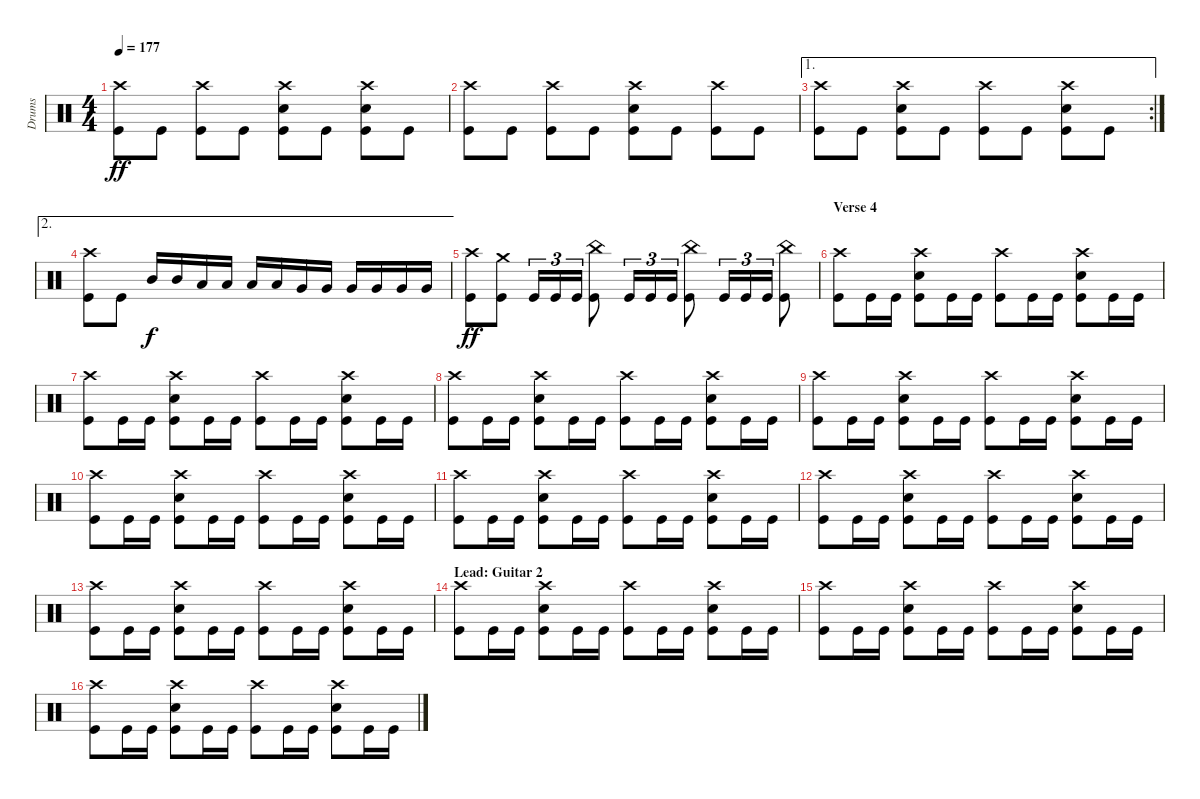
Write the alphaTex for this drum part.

\track ("Drums" "Drums") {instrument percussion}
\staff {score}
\articulation defaults
\ts (4 4)
\tempo 177
\clef neutral
\ks c
("Crash high (hit)" "Kick (hit)").8{dy ff} "Kick (hit)".8 ("Crash high (hit)" "Kick (hit)").8 "Kick (hit)".8 ("Crash high (hit)" "Electric Snare (hit)" "Kick (hit)").8 "Kick (hit)".8 ("Crash high (hit)" "Electric Snare (hit)" "Kick (hit)").8 "Kick (hit)".8 |
("Crash high (hit)" "Kick (hit)").8 "Kick (hit)".8 ("Crash high (hit)" "Kick (hit)").8 "Kick (hit)".8 ("Crash high (hit)" "Electric Snare (hit)" "Kick (hit)").8 "Kick (hit)".8 ("Crash high (hit)" "Kick (hit)").8 "Kick (hit)".8 |
\ae 1
\rc 2
("Crash high (hit)" "Kick (hit)").8 "Kick (hit)".8 ("Crash high (hit)" "Electric Snare (hit)" "Kick (hit)").8 "Kick (hit)".8 ("Crash high (hit)" "Kick (hit)").8 "Kick (hit)".8 ("Crash high (hit)" "Electric Snare (hit)" "Kick (hit)").8 "Kick (hit)".8 |
\ae 2
("Crash high (hit)" "Kick (hit)").8 "Kick (hit)".8 "Mid Tom (hit)".16{dy f} "Mid Tom (hit)".16 "Low Tom (hit)".16 "Low Tom (hit)".16 "Low Tom (hit)".16 "Low Tom (hit)".16 "Very Low Tom (hit)".16 "Very Low Tom (hit)".16 "Very Low Tom (hit)".16 "Very Low Tom (hit)".16 "Very Low Tom (hit)".16 "Very Low Tom (hit)".16 |
("Crash high (hit)" "Kick (hit)").8{dy ff} ("Crash medium (hit)" "Kick (hit)").8 "Kick (hit)".16{tu (3 2)} "Kick (hit)".16{tu (3 2)} "Kick (hit)".16{tu (3 2)} ("China (hit)" "Kick (hit)").8 "Kick (hit)".16{tu (3 2)} "Kick (hit)".16{tu (3 2)} "Kick (hit)".16{tu (3 2)} ("China (hit)" "Kick (hit)").8 "Kick (hit)".16{tu (3 2)} "Kick (hit)".16{tu (3 2)} "Kick (hit)".16{tu (3 2)} ("China (hit)" "Kick (hit)").8 |
\section ("" "Verse 4")
("Crash high (hit)" "Kick (hit)").8 "Kick (hit)".16 "Kick (hit)".16 ("Crash high (hit)" "Electric Snare (hit)" "Kick (hit)").8 "Kick (hit)".16 "Kick (hit)".16 ("Crash high (hit)" "Kick (hit)").8 "Kick (hit)".16 "Kick (hit)".16 ("Crash high (hit)" "Electric Snare (hit)" "Kick (hit)").8 "Kick (hit)".16 "Kick (hit)".16 |
("Crash high (hit)" "Kick (hit)").8 "Kick (hit)".16 "Kick (hit)".16 ("Crash high (hit)" "Electric Snare (hit)" "Kick (hit)").8 "Kick (hit)".16 "Kick (hit)".16 ("Crash high (hit)" "Kick (hit)").8 "Kick (hit)".16 "Kick (hit)".16 ("Crash high (hit)" "Electric Snare (hit)" "Kick (hit)").8 "Kick (hit)".16 "Kick (hit)".16 |
("Crash high (hit)" "Kick (hit)").8 "Kick (hit)".16 "Kick (hit)".16 ("Crash high (hit)" "Electric Snare (hit)" "Kick (hit)").8 "Kick (hit)".16 "Kick (hit)".16 ("Crash high (hit)" "Kick (hit)").8 "Kick (hit)".16 "Kick (hit)".16 ("Crash high (hit)" "Electric Snare (hit)" "Kick (hit)").8 "Kick (hit)".16 "Kick (hit)".16 |
("Crash high (hit)" "Kick (hit)").8 "Kick (hit)".16 "Kick (hit)".16 ("Crash high (hit)" "Electric Snare (hit)" "Kick (hit)").8 "Kick (hit)".16 "Kick (hit)".16 ("Crash high (hit)" "Kick (hit)").8 "Kick (hit)".16 "Kick (hit)".16 ("Crash high (hit)" "Electric Snare (hit)" "Kick (hit)").8 "Kick (hit)".16 "Kick (hit)".16 |
("Crash high (hit)" "Kick (hit)").8 "Kick (hit)".16 "Kick (hit)".16 ("Crash high (hit)" "Electric Snare (hit)" "Kick (hit)").8 "Kick (hit)".16 "Kick (hit)".16 ("Crash high (hit)" "Kick (hit)").8 "Kick (hit)".16 "Kick (hit)".16 ("Crash high (hit)" "Electric Snare (hit)" "Kick (hit)").8 "Kick (hit)".16 "Kick (hit)".16 |
("Crash high (hit)" "Kick (hit)").8 "Kick (hit)".16 "Kick (hit)".16 ("Crash high (hit)" "Electric Snare (hit)" "Kick (hit)").8 "Kick (hit)".16 "Kick (hit)".16 ("Crash high (hit)" "Kick (hit)").8 "Kick (hit)".16 "Kick (hit)".16 ("Crash high (hit)" "Electric Snare (hit)" "Kick (hit)").8 "Kick (hit)".16 "Kick (hit)".16 |
("Crash high (hit)" "Kick (hit)").8 "Kick (hit)".16 "Kick (hit)".16 ("Crash high (hit)" "Electric Snare (hit)" "Kick (hit)").8 "Kick (hit)".16 "Kick (hit)".16 ("Crash high (hit)" "Kick (hit)").8 "Kick (hit)".16 "Kick (hit)".16 ("Crash high (hit)" "Electric Snare (hit)" "Kick (hit)").8 "Kick (hit)".16 "Kick (hit)".16 |
("Crash high (hit)" "Kick (hit)").8 "Kick (hit)".16 "Kick (hit)".16 ("Crash high (hit)" "Electric Snare (hit)" "Kick (hit)").8 "Kick (hit)".16 "Kick (hit)".16 ("Crash high (hit)" "Kick (hit)").8 "Kick (hit)".16 "Kick (hit)".16 ("Crash high (hit)" "Electric Snare (hit)" "Kick (hit)").8 "Kick (hit)".16 "Kick (hit)".16 |
\section ("" "Lead: Guitar 2")
("Crash high (hit)" "Kick (hit)").8 "Kick (hit)".16 "Kick (hit)".16 ("Crash high (hit)" "Electric Snare (hit)" "Kick (hit)").8 "Kick (hit)".16 "Kick (hit)".16 ("Crash high (hit)" "Kick (hit)").8 "Kick (hit)".16 "Kick (hit)".16 ("Crash high (hit)" "Electric Snare (hit)" "Kick (hit)").8 "Kick (hit)".16 "Kick (hit)".16 |
("Crash high (hit)" "Kick (hit)").8 "Kick (hit)".16 "Kick (hit)".16 ("Crash high (hit)" "Electric Snare (hit)" "Kick (hit)").8 "Kick (hit)".16 "Kick (hit)".16 ("Crash high (hit)" "Kick (hit)").8 "Kick (hit)".16 "Kick (hit)".16 ("Crash high (hit)" "Electric Snare (hit)" "Kick (hit)").8 "Kick (hit)".16 "Kick (hit)".16 |
("Crash high (hit)" "Kick (hit)").8 "Kick (hit)".16 "Kick (hit)".16 ("Crash high (hit)" "Electric Snare (hit)" "Kick (hit)").8 "Kick (hit)".16 "Kick (hit)".16 ("Crash high (hit)" "Kick (hit)").8 "Kick (hit)".16 "Kick (hit)".16 ("Crash high (hit)" "Electric Snare (hit)" "Kick (hit)").8 "Kick (hit)".16 "Kick (hit)".16
